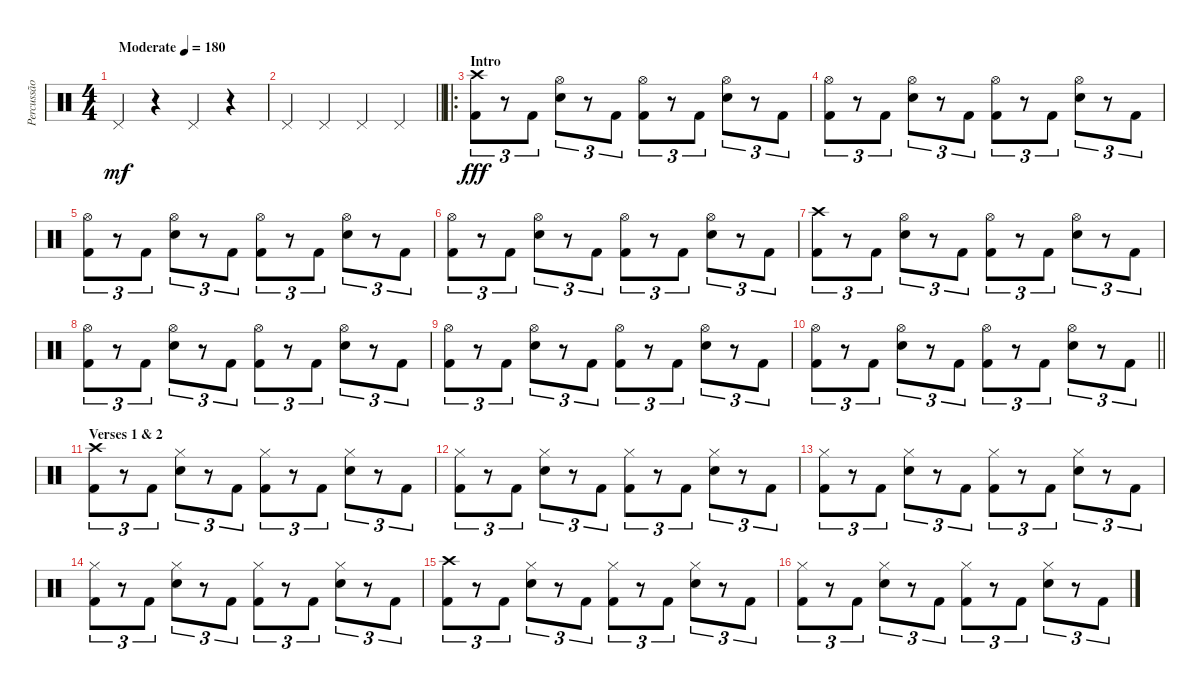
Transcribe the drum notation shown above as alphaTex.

\track ("Percussão" "Percussão") {instrument percussion}
\staff {score}
\articulation defaults
\ts (4 4)
\tempo (180 "Moderate")
\clef neutral
\ks c "Pedal Hi-Hat (hit)".4{dy mf}
r.4 "Pedal Hi-Hat (hit)".4 r.4 |
\barLineRight lightlight "Pedal Hi-Hat (hit)".4 "Pedal Hi-Hat (hit)".4 "Pedal Hi-Hat (hit)".4 "Pedal Hi-Hat (hit)".4
|
\ro
\section ("" "Intro")
("Crash high (hit)" "Kick (hit) 2").8{tu (3 2) dy fff} r.8{tu (3 2)} "Kick (hit) 2".8{tu (3 2)} ("Hi-Hat (open)" "Snare (hit) 2").8{tu (3 2)} r.8{tu (3 2)} "Kick (hit) 2".8{tu (3 2)} ("Hi-Hat (open)" "Kick (hit) 2").8{tu (3 2)} r.8{tu (3 2)} "Kick (hit) 2".8{tu (3 2)} ("Hi-Hat (open)" "Snare (hit) 2").8{tu (3 2)} r.8{tu (3 2)} "Kick (hit) 2".8{tu (3 2)} |
("Hi-Hat (open)" "Kick (hit) 2").8{tu (3 2)} r.8{tu (3 2)} "Kick (hit) 2".8{tu (3 2)} ("Hi-Hat (open)" "Snare (hit) 2").8{tu (3 2)} r.8{tu (3 2)} "Kick (hit) 2".8{tu (3 2)} ("Hi-Hat (open)" "Kick (hit) 2").8{tu (3 2)} r.8{tu (3 2)} "Kick (hit) 2".8{tu (3 2)} ("Hi-Hat (open)" "Snare (hit) 2").8{tu (3 2)} r.8{tu (3 2)} "Kick (hit) 2".8{tu (3 2)} |
("Hi-Hat (open)" "Kick (hit) 2").8{tu (3 2)} r.8{tu (3 2)} "Kick (hit) 2".8{tu (3 2)} ("Hi-Hat (open)" "Snare (hit) 2").8{tu (3 2)} r.8{tu (3 2)} "Kick (hit) 2".8{tu (3 2)} ("Hi-Hat (open)" "Kick (hit) 2").8{tu (3 2)} r.8{tu (3 2)} "Kick (hit) 2".8{tu (3 2)} ("Hi-Hat (open)" "Snare (hit) 2").8{tu (3 2)} r.8{tu (3 2)} "Kick (hit) 2".8{tu (3 2)} |
("Hi-Hat (open)" "Kick (hit) 2").8{tu (3 2)} r.8{tu (3 2)} "Kick (hit) 2".8{tu (3 2)} ("Hi-Hat (open)" "Snare (hit) 2").8{tu (3 2)} r.8{tu (3 2)} "Kick (hit) 2".8{tu (3 2)} ("Hi-Hat (open)" "Kick (hit) 2").8{tu (3 2)} r.8{tu (3 2)} "Kick (hit) 2".8{tu (3 2)} ("Hi-Hat (open)" "Snare (hit) 2").8{tu (3 2)} r.8{tu (3 2)} "Kick (hit) 2".8{tu (3 2)} |
("Crash high (hit)" "Kick (hit) 2").8{tu (3 2)} r.8{tu (3 2)} "Kick (hit) 2".8{tu (3 2)} ("Hi-Hat (open)" "Snare (hit) 2").8{tu (3 2)} r.8{tu (3 2)} "Kick (hit) 2".8{tu (3 2)} ("Hi-Hat (open)" "Kick (hit) 2").8{tu (3 2)} r.8{tu (3 2)} "Kick (hit) 2".8{tu (3 2)} ("Hi-Hat (open)" "Snare (hit) 2").8{tu (3 2)} r.8{tu (3 2)} "Kick (hit) 2".8{tu (3 2)} |
("Hi-Hat (open)" "Kick (hit) 2").8{tu (3 2)} r.8{tu (3 2)} "Kick (hit) 2".8{tu (3 2)} ("Hi-Hat (open)" "Snare (hit) 2").8{tu (3 2)} r.8{tu (3 2)} "Kick (hit) 2".8{tu (3 2)} ("Hi-Hat (open)" "Kick (hit) 2").8{tu (3 2)} r.8{tu (3 2)} "Kick (hit) 2".8{tu (3 2)} ("Hi-Hat (open)" "Snare (hit) 2").8{tu (3 2)} r.8{tu (3 2)} "Kick (hit) 2".8{tu (3 2)} |
("Hi-Hat (open)" "Kick (hit) 2").8{tu (3 2)} r.8{tu (3 2)} "Kick (hit) 2".8{tu (3 2)} ("Hi-Hat (open)" "Snare (hit) 2").8{tu (3 2)} r.8{tu (3 2)} "Kick (hit) 2".8{tu (3 2)} ("Hi-Hat (open)" "Kick (hit) 2").8{tu (3 2)} r.8{tu (3 2)} "Kick (hit) 2".8{tu (3 2)} ("Hi-Hat (open)" "Snare (hit) 2").8{tu (3 2)} r.8{tu (3 2)} "Kick (hit) 2".8{tu (3 2)} |
\barLineRight lightlight
("Hi-Hat (open)" "Kick (hit) 2").8{tu (3 2)} r.8{tu (3 2)} "Kick (hit) 2".8{tu (3 2)} ("Hi-Hat (open)" "Snare (hit) 2").8{tu (3 2)} r.8{tu (3 2)} "Kick (hit) 2".8{tu (3 2)} ("Hi-Hat (open)" "Kick (hit) 2").8{tu (3 2)} r.8{tu (3 2)} "Kick (hit) 2".8{tu (3 2)} ("Hi-Hat (open)" "Snare (hit) 2").8{tu (3 2)} r.8{tu (3 2)} "Kick (hit) 2".8{tu (3 2)} |
\section ("" "Verses 1 & 2")
("Crash high (hit)" "Kick (hit) 2").8{tu (3 2)} r.8{tu (3 2)} "Kick (hit) 2".8{tu (3 2)} ("Hi-Hat (closed)" "Snare (hit) 2").8{tu (3 2)} r.8{tu (3 2)} "Kick (hit) 2".8{tu (3 2)} ("Hi-Hat (closed)" "Kick (hit) 2").8{tu (3 2)} r.8{tu (3 2)} "Kick (hit) 2".8{tu (3 2)} ("Hi-Hat (closed)" "Snare (hit) 2").8{tu (3 2)} r.8{tu (3 2)} "Kick (hit) 2".8{tu (3 2)} |
("Hi-Hat (closed)" "Kick (hit) 2").8{tu (3 2)} r.8{tu (3 2)} "Kick (hit) 2".8{tu (3 2)} ("Hi-Hat (closed)" "Snare (hit) 2").8{tu (3 2)} r.8{tu (3 2)} "Kick (hit) 2".8{tu (3 2)} ("Hi-Hat (closed)" "Kick (hit) 2").8{tu (3 2)} r.8{tu (3 2)} "Kick (hit) 2".8{tu (3 2)} ("Hi-Hat (closed)" "Snare (hit) 2").8{tu (3 2)} r.8{tu (3 2)} "Kick (hit) 2".8{tu (3 2)} |
("Hi-Hat (closed)" "Kick (hit) 2").8{tu (3 2)} r.8{tu (3 2)} "Kick (hit) 2".8{tu (3 2)} ("Hi-Hat (closed)" "Snare (hit) 2").8{tu (3 2)} r.8{tu (3 2)} "Kick (hit) 2".8{tu (3 2)} ("Hi-Hat (closed)" "Kick (hit) 2").8{tu (3 2)} r.8{tu (3 2)} "Kick (hit) 2".8{tu (3 2)} ("Hi-Hat (closed)" "Snare (hit) 2").8{tu (3 2)} r.8{tu (3 2)} "Kick (hit) 2".8{tu (3 2)} |
("Hi-Hat (closed)" "Kick (hit) 2").8{tu (3 2)} r.8{tu (3 2)} "Kick (hit) 2".8{tu (3 2)} ("Hi-Hat (closed)" "Snare (hit) 2").8{tu (3 2)} r.8{tu (3 2)} "Kick (hit) 2".8{tu (3 2)} ("Hi-Hat (closed)" "Kick (hit) 2").8{tu (3 2)} r.8{tu (3 2)} "Kick (hit) 2".8{tu (3 2)} ("Hi-Hat (closed)" "Snare (hit) 2").8{tu (3 2)} r.8{tu (3 2)} "Kick (hit) 2".8{tu (3 2)} |
("Crash high (hit)" "Kick (hit) 2").8{tu (3 2)} r.8{tu (3 2)} "Kick (hit) 2".8{tu (3 2)} ("Hi-Hat (closed)" "Snare (hit) 2").8{tu (3 2)} r.8{tu (3 2)} "Kick (hit) 2".8{tu (3 2)} ("Hi-Hat (closed)" "Kick (hit) 2").8{tu (3 2)} r.8{tu (3 2)} "Kick (hit) 2".8{tu (3 2)} ("Hi-Hat (closed)" "Snare (hit) 2").8{tu (3 2)} r.8{tu (3 2)} "Kick (hit) 2".8{tu (3 2)} |
("Hi-Hat (closed)" "Kick (hit) 2").8{tu (3 2)} r.8{tu (3 2)} "Kick (hit) 2".8{tu (3 2)} ("Hi-Hat (closed)" "Snare (hit) 2").8{tu (3 2)} r.8{tu (3 2)} "Kick (hit) 2".8{tu (3 2)} ("Hi-Hat (closed)" "Kick (hit) 2").8{tu (3 2)} r.8{tu (3 2)} "Kick (hit) 2".8{tu (3 2)} ("Hi-Hat (closed)" "Snare (hit) 2").8{tu (3 2)} r.8{tu (3 2)} "Kick (hit) 2".8{tu (3 2)}
